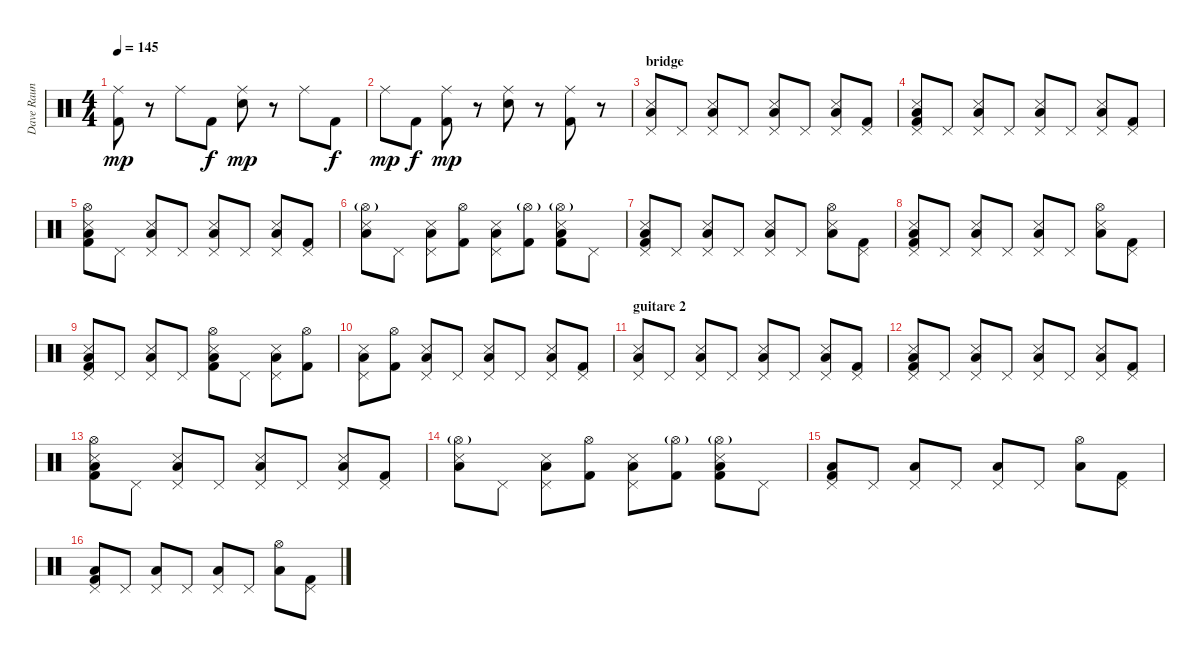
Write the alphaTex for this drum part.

\track ("Dave Raun" "Dave Raun") {instrument percussion}
\staff {score}
\articulation defaults
\ts (4 4)
\tempo 145
\clef neutral
\ks c
("Ride (middle)" "Kick (hit) 2").8{dy mp} r.8 "Ride (middle)".8 "Kick (hit) 2".8{dy f} ("Ride (middle)" "Electric Snare (hit)").8{dy mp} r.8 "Ride (middle)".8 "Kick (hit) 2".8{dy f} |
"Ride (middle)".8{dy mp} "Kick (hit) 2".8{dy f} ("Ride (middle)" "Kick (hit) 2").8{dy mp} r.8 ("Ride (middle)" "Electric Snare (hit)").8 r.8 ("Ride (middle)" "Kick (hit) 2").8 r.8 |
\section ("" "bridge")
("Snare (side stick) 3" "Low Floor Tom (hit)" "Pedal Hi-Hat (hit)").8 "Pedal Hi-Hat (hit)".8 ("Snare (side stick) 3" "Low Floor Tom (hit)" "Pedal Hi-Hat (hit)").8 "Pedal Hi-Hat (hit)".8 ("Snare (side stick) 3" "Low Floor Tom (hit)" "Pedal Hi-Hat (hit)").8 "Pedal Hi-Hat (hit)".8 ("Snare (side stick) 3" "Low Floor Tom (hit)" "Pedal Hi-Hat (hit)").8 ("Kick (hit) 2" "Pedal Hi-Hat (hit)").8 |
("Snare (side stick) 3" "Low Floor Tom (hit)" "Kick (hit) 2" "Pedal Hi-Hat (hit)").8 "Pedal Hi-Hat (hit)".8 ("Snare (side stick) 3" "Low Floor Tom (hit)" "Pedal Hi-Hat (hit)").8 "Pedal Hi-Hat (hit)".8 ("Snare (side stick) 3" "Low Floor Tom (hit)" "Pedal Hi-Hat (hit)").8 "Pedal Hi-Hat (hit)".8 ("Snare (side stick) 3" "Low Floor Tom (hit)" "Pedal Hi-Hat (hit)").8 ("Kick (hit) 2" "Pedal Hi-Hat (hit)").8 |
("Snare (side stick) 3" "Low Floor Tom (hit)" "Kick (hit) 2" "Hi-Hat (open)").8 "Pedal Hi-Hat (hit)".8 ("Snare (side stick) 3" "Low Floor Tom (hit)" "Pedal Hi-Hat (hit)").8 "Pedal Hi-Hat (hit)".8 ("Snare (side stick) 3" "Low Floor Tom (hit)" "Pedal Hi-Hat (hit)").8 "Pedal Hi-Hat (hit)".8 ("Snare (side stick) 3" "Low Floor Tom (hit)" "Pedal Hi-Hat (hit)").8 ("Kick (hit) 2" "Pedal Hi-Hat (hit)").8 |
("Snare (side stick) 3" "Low Floor Tom (hit)" "Hi-Hat (open)"{g}).8 "Pedal Hi-Hat (hit)".8 ("Snare (side stick) 3" "Low Floor Tom (hit)" "Pedal Hi-Hat (hit)").8 ("Kick (hit) 2" "Hi-Hat (open)").8 ("Snare (side stick) 3" "Low Floor Tom (hit)" "Pedal Hi-Hat (hit)").8 ("Kick (hit) 2" "Hi-Hat (open)"{g}).8 ("Snare (side stick) 3" "Low Floor Tom (hit)" "Kick (hit) 2" "Hi-Hat (open)"{g}).8 "Pedal Hi-Hat (hit)".8 |
("Snare (side stick) 3" "Low Floor Tom (hit)" "Kick (hit) 2" "Pedal Hi-Hat (hit)").8 "Pedal Hi-Hat (hit)".8 ("Snare (side stick) 3" "Low Floor Tom (hit)" "Pedal Hi-Hat (hit)").8 "Pedal Hi-Hat (hit)".8 ("Snare (side stick) 3" "Low Floor Tom (hit)" "Pedal Hi-Hat (hit)").8 "Pedal Hi-Hat (hit)".8 ("Snare (side stick) 3" "Low Floor Tom (hit)" "Hi-Hat (open)").8 ("Kick (hit) 2" "Pedal Hi-Hat (hit)").8 |
("Snare (side stick) 3" "Low Floor Tom (hit)" "Kick (hit) 2" "Pedal Hi-Hat (hit)").8 "Pedal Hi-Hat (hit)".8 ("Snare (side stick) 3" "Low Floor Tom (hit)" "Pedal Hi-Hat (hit)").8 "Pedal Hi-Hat (hit)".8 ("Snare (side stick) 3" "Low Floor Tom (hit)" "Pedal Hi-Hat (hit)").8 "Pedal Hi-Hat (hit)".8 ("Snare (side stick) 3" "Low Floor Tom (hit)" "Hi-Hat (open)").8 ("Kick (hit) 2" "Pedal Hi-Hat (hit)").8 |
("Snare (side stick) 3" "Low Floor Tom (hit)" "Kick (hit) 2" "Pedal Hi-Hat (hit)").8 "Pedal Hi-Hat (hit)".8 ("Snare (side stick) 3" "Low Floor Tom (hit)" "Pedal Hi-Hat (hit)").8 "Pedal Hi-Hat (hit)".8 ("Snare (side stick) 3" "Low Floor Tom (hit)" "Kick (hit) 2" "Hi-Hat (open)").8 "Pedal Hi-Hat (hit)".8 ("Snare (side stick) 3" "Low Floor Tom (hit)" "Pedal Hi-Hat (hit)").8 ("Kick (hit) 2" "Hi-Hat (open)").8 |
("Snare (side stick) 3" "Low Floor Tom (hit)" "Pedal Hi-Hat (hit)").8 ("Kick (hit) 2" "Hi-Hat (open)").8 ("Snare (side stick) 3" "Low Floor Tom (hit)" "Pedal Hi-Hat (hit)").8 "Pedal Hi-Hat (hit)".8 ("Snare (side stick) 3" "Low Floor Tom (hit)" "Pedal Hi-Hat (hit)").8 "Pedal Hi-Hat (hit)".8 ("Snare (side stick) 3" "Low Floor Tom (hit)" "Pedal Hi-Hat (hit)").8 ("Kick (hit) 2" "Pedal Hi-Hat (hit)").8 |
\section ("" "guitare 2")
("Snare (side stick) 3" "Low Floor Tom (hit)" "Pedal Hi-Hat (hit)").8 "Pedal Hi-Hat (hit)".8 ("Snare (side stick) 3" "Low Floor Tom (hit)" "Pedal Hi-Hat (hit)").8 "Pedal Hi-Hat (hit)".8 ("Snare (side stick) 3" "Low Floor Tom (hit)" "Pedal Hi-Hat (hit)").8 "Pedal Hi-Hat (hit)".8 ("Snare (side stick) 3" "Low Floor Tom (hit)" "Pedal Hi-Hat (hit)").8 ("Kick (hit) 2" "Pedal Hi-Hat (hit)").8 |
("Snare (side stick) 3" "Low Floor Tom (hit)" "Kick (hit) 2" "Pedal Hi-Hat (hit)").8 "Pedal Hi-Hat (hit)".8 ("Snare (side stick) 3" "Low Floor Tom (hit)" "Pedal Hi-Hat (hit)").8 "Pedal Hi-Hat (hit)".8 ("Snare (side stick) 3" "Low Floor Tom (hit)" "Pedal Hi-Hat (hit)").8 "Pedal Hi-Hat (hit)".8 ("Snare (side stick) 3" "Low Floor Tom (hit)" "Pedal Hi-Hat (hit)").8 ("Kick (hit) 2" "Pedal Hi-Hat (hit)").8 |
("Snare (side stick) 3" "Low Floor Tom (hit)" "Kick (hit) 2" "Hi-Hat (open)").8 "Pedal Hi-Hat (hit)".8 ("Snare (side stick) 3" "Low Floor Tom (hit)" "Pedal Hi-Hat (hit)").8 "Pedal Hi-Hat (hit)".8 ("Snare (side stick) 3" "Low Floor Tom (hit)" "Pedal Hi-Hat (hit)").8 "Pedal Hi-Hat (hit)".8 ("Snare (side stick) 3" "Low Floor Tom (hit)" "Pedal Hi-Hat (hit)").8 ("Kick (hit) 2" "Pedal Hi-Hat (hit)").8 |
("Snare (side stick) 3" "Low Floor Tom (hit)" "Hi-Hat (open)"{g}).8 "Pedal Hi-Hat (hit)".8 ("Snare (side stick) 3" "Low Floor Tom (hit)" "Pedal Hi-Hat (hit)").8 ("Kick (hit) 2" "Hi-Hat (open)").8 ("Snare (side stick) 3" "Low Floor Tom (hit)" "Pedal Hi-Hat (hit)").8 ("Kick (hit) 2" "Hi-Hat (open)"{g}).8 ("Snare (side stick) 3" "Low Floor Tom (hit)" "Kick (hit) 2" "Hi-Hat (open)"{g}).8 "Pedal Hi-Hat (hit)".8 |
("Low Floor Tom (hit)" "Kick (hit) 2" "Pedal Hi-Hat (hit)").8 "Pedal Hi-Hat (hit)".8 ("Low Floor Tom (hit)" "Pedal Hi-Hat (hit)").8 "Pedal Hi-Hat (hit)".8 ("Low Floor Tom (hit)" "Pedal Hi-Hat (hit)").8 "Pedal Hi-Hat (hit)".8 ("Low Floor Tom (hit)" "Hi-Hat (open)").8 ("Kick (hit) 2" "Pedal Hi-Hat (hit)").8 |
("Low Floor Tom (hit)" "Kick (hit) 2" "Pedal Hi-Hat (hit)").8 "Pedal Hi-Hat (hit)".8 ("Low Floor Tom (hit)" "Pedal Hi-Hat (hit)").8 "Pedal Hi-Hat (hit)".8 ("Low Floor Tom (hit)" "Pedal Hi-Hat (hit)").8 "Pedal Hi-Hat (hit)".8 ("Low Floor Tom (hit)" "Hi-Hat (open)").8 ("Kick (hit) 2" "Pedal Hi-Hat (hit)").8
